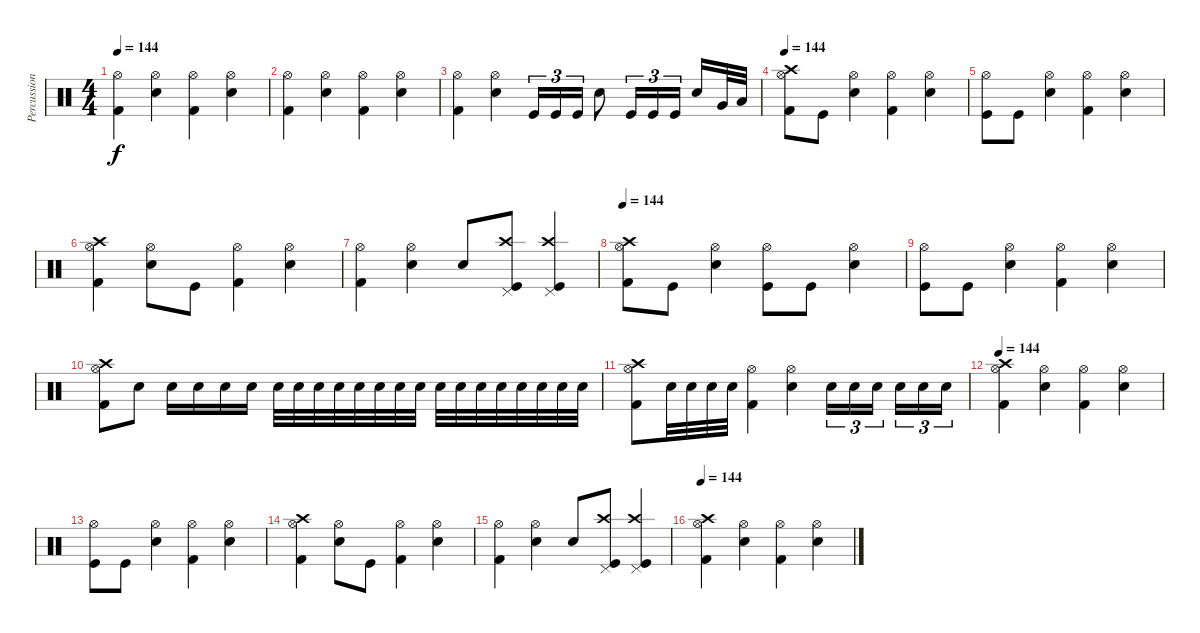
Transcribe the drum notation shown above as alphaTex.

\track ("Percussion" "Percussion") {instrument percussion}
\staff {score}
\articulation defaults
\ts (4 4)
\tempo 144
\clef neutral
\ks c
("Hi-Hat (open)" "Kick (hit) 2").4{dy f} ("Hi-Hat (open)" "Snare (hit) 2").4 ("Hi-Hat (open)" "Kick (hit) 2").4 ("Hi-Hat (open)" "Snare (hit) 2").4 |
("Hi-Hat (open)" "Kick (hit) 2").4 ("Hi-Hat (open)" "Snare (hit) 2").4 ("Hi-Hat (open)" "Kick (hit) 2").4 ("Hi-Hat (open)" "Snare (hit) 2").4 |
("Hi-Hat (open)" "Kick (hit) 2").4 ("Hi-Hat (open)" "Snare (hit) 2").4 "Kick (hit)".16{tu (3 2)} "Kick (hit)".16{tu (3 2)} "Kick (hit)".16{tu (3 2)} "Snare (hit) 2".8 "Kick (hit)".16{tu (3 2)} "Kick (hit)".16{tu (3 2)} "Kick (hit)".16{tu (3 2)} "Snare (hit) 2".16 "Very Low Tom (hit)".32 "Low Floor Tom (hit)".32 |
\tempo 144
("Hi-Hat (open)" "Kick (hit) 2" "Crash high (hit)").8 "Kick (hit)".8 ("Hi-Hat (open)" "Snare (hit) 2").4 ("Hi-Hat (open)" "Kick (hit) 2").4 ("Hi-Hat (open)" "Snare (hit) 2").4 |
("Hi-Hat (open)" "Kick (hit)").8 "Kick (hit)".8 ("Hi-Hat (open)" "Snare (hit) 2").4 ("Hi-Hat (open)" "Kick (hit) 2").4 ("Hi-Hat (open)" "Snare (hit) 2").4 |
("Hi-Hat (open)" "Kick (hit) 2" "Crash high (hit)").4 ("Hi-Hat (open)" "Snare (hit) 2").8 "Kick (hit)".8 ("Hi-Hat (open)" "Kick (hit) 2").4 ("Hi-Hat (open)" "Snare (hit) 2").4 |
("Hi-Hat (open)" "Kick (hit) 2").4 ("Hi-Hat (open)" "Snare (hit) 2").4 "Snare (hit) 2".8 ("Pedal Hi-Hat (hit)" "Crash high (hit)" "Kick (hit)").8 ("Pedal Hi-Hat (hit)" "Crash high (hit)" "Kick (hit)").4 |
\tempo 144
("Hi-Hat (open)" "Kick (hit) 2" "Crash high (hit)").8 "Kick (hit)".8 ("Hi-Hat (open)" "Snare (hit) 2").4 ("Hi-Hat (open)" "Kick (hit)").8 "Kick (hit)".8 ("Hi-Hat (open)" "Snare (hit) 2").4 |
("Hi-Hat (open)" "Kick (hit)").8 "Kick (hit)".8 ("Hi-Hat (open)" "Snare (hit) 2").4 ("Hi-Hat (open)" "Kick (hit) 2").4 ("Hi-Hat (open)" "Snare (hit) 2").4 |
("Hi-Hat (open)" "Kick (hit) 2" "Crash high (hit)").8 "Snare (hit) 2".8 "Snare (hit) 2".16 "Snare (hit) 2".16 "Snare (hit) 2".16 "Snare (hit) 2".16 "Snare (hit) 2".32 "Snare (hit) 2".32 "Snare (hit) 2".32 "Snare (hit) 2".32 "Snare (hit) 2".32 "Snare (hit) 2".32 "Snare (hit) 2".32 "Snare (hit) 2".32 "Snare (hit) 2".32 "Snare (hit) 2".32 "Snare (hit) 2".32 "Snare (hit) 2".32 "Snare (hit) 2".32 "Snare (hit) 2".32 "Snare (hit) 2".32 "Snare (hit) 2".32 |
("Hi-Hat (open)" "Kick (hit) 2" "Crash high (hit)").8 "Snare (hit) 2".32 "Snare (hit) 2".32 "Snare (hit) 2".32 "Snare (hit) 2".32 ("Hi-Hat (open)" "Kick (hit) 2").4 ("Hi-Hat (open)" "Snare (hit) 2").4 "Snare (hit) 2".16{tu (3 2)} "Snare (hit) 2".16{tu (3 2)} "Snare (hit) 2".16{tu (3 2)} "Snare (hit) 2".16{tu (3 2)} "Snare (hit) 2".16{tu (3 2)} "Snare (hit) 2".16{tu (3 2)} |
\tempo 144
("Hi-Hat (open)" "Kick (hit) 2" "Crash high (hit)").4 ("Hi-Hat (open)" "Snare (hit) 2").4 ("Hi-Hat (open)" "Kick (hit) 2").4 ("Hi-Hat (open)" "Snare (hit) 2").4 |
("Hi-Hat (open)" "Kick (hit)").8 "Kick (hit)".8 ("Hi-Hat (open)" "Snare (hit) 2").4 ("Hi-Hat (open)" "Kick (hit) 2").4 ("Hi-Hat (open)" "Snare (hit) 2").4 |
("Hi-Hat (open)" "Kick (hit) 2" "Crash high (hit)").4 ("Hi-Hat (open)" "Snare (hit) 2").8 "Kick (hit)".8 ("Hi-Hat (open)" "Kick (hit) 2").4 ("Hi-Hat (open)" "Snare (hit) 2").4 |
("Hi-Hat (open)" "Kick (hit) 2").4 ("Hi-Hat (open)" "Snare (hit) 2").4 "Snare (hit) 2".8 ("Pedal Hi-Hat (hit)" "Crash high (hit)" "Kick (hit)").8 ("Pedal Hi-Hat (hit)" "Crash high (hit)" "Kick (hit)").4 |
\tempo 144
("Hi-Hat (open)" "Kick (hit) 2" "Crash high (hit)").4 ("Hi-Hat (open)" "Snare (hit) 2").4 ("Hi-Hat (open)" "Kick (hit) 2").4 ("Hi-Hat (open)" "Snare (hit) 2").4
